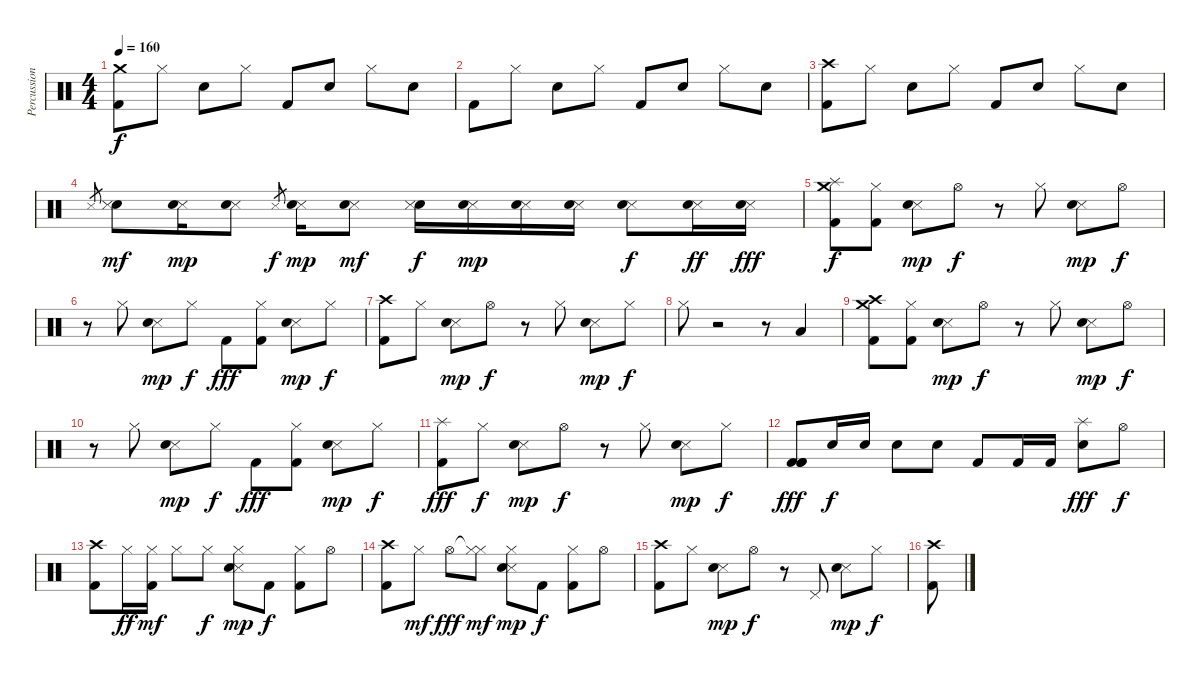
\track ("Percussion" "Percussion") {instrument percussion}
\staff {score}
\articulation defaults
\ts (4 4)
\tempo 160
\clef neutral
\ks c
("Kick (hit) 2" "Crash medium (hit)").8{dy f} "Hi-Hat (closed)".8 "Electric Snare (hit)".8 "Hi-Hat (closed)".8 "Kick (hit) 2".8 "Electric Snare (hit)".8 "Hi-Hat (closed)".8 "Electric Snare (hit)".8 |
"Kick (hit) 2".8 "Hi-Hat (closed)".8 "Electric Snare (hit)".8 "Hi-Hat (closed)".8 "Kick (hit) 2".8 "Electric Snare (hit)".8 "Hi-Hat (closed)".8 "Electric Snare (hit)".8 |
("Kick (hit) 2" "Crash high (hit)").8 "Hi-Hat (closed)".8 "Electric Snare (hit)".8 "Hi-Hat (closed)".8 "Kick (hit) 2".8 "Electric Snare (hit)".8 "Hi-Hat (closed)".8 "Electric Snare (hit)".8 |
"Snare (side stick) 3".8{gr} ("Electric Snare (hit)" "Snare (side stick) 3").8{dy mf} ("Snare (side stick) 3" "Electric Snare (hit)").16{dy mp} ("Snare (side stick) 3" "Electric Snare (hit)").8 "Snare (side stick) 3".8{gr dy f} ("Snare (side stick) 3" "Electric Snare (hit)").16{dy mp} ("Snare (side stick) 3" "Electric Snare (hit)").8{dy mf} ("Electric Snare (hit)" "Snare (side stick) 3").16{dy f} ("Snare (side stick) 3" "Electric Snare (hit)").16{dy mp} ("Snare (side stick) 3" "Electric Snare (hit)").16 ("Snare (side stick) 3" "Electric Snare (hit)").16 ("Snare (side stick) 3" "Electric Snare (hit)").8{dy f} ("Snare (side stick) 3" "Electric Snare (hit)").16{dy ff} ("Snare (side stick) 3" "Electric Snare (hit)").16{dy fff} |
("Kick (hit) 2" "Splash (hit)" "Crash medium (hit)").8{dy f} ("Hi-Hat (closed)" "Kick (hit) 2").8 ("Snare (side stick) 3" "Electric Snare (hit)").8{dy mp} "Hi-Hat (open)".8{dy f} r.8 "Hi-Hat (closed)".8 ("Snare (side stick) 3" "Electric Snare (hit)").8{dy mp} "Hi-Hat (open)".8{dy f} |
r.8 "Hi-Hat (closed)".8 ("Snare (side stick) 3" "Electric Snare (hit)").8{dy mp} "Hi-Hat (closed)".8{dy f} "Kick (hit) 2".8{dy fff} ("Hi-Hat (closed)" "Kick (hit) 2").8 ("Snare (side stick) 3" "Electric Snare (hit)").8{dy mp} "Hi-Hat (closed)".8{dy f} |
("Kick (hit) 2" "Crash high (hit)").8 "Hi-Hat (closed)".8 ("Snare (side stick) 3" "Electric Snare (hit)").8{dy mp} "Hi-Hat (open)".8{dy f} r.8 "Hi-Hat (closed)".8 ("Snare (side stick) 3" "Electric Snare (hit)").8{dy mp} "Hi-Hat (closed)".8{dy f} |
"Hi-Hat (closed)".8 r.2 r.8 "Low Floor Tom (hit)".4 |
("Kick (hit) 2" "Crash high (hit)" "Crash medium (hit)").8 ("Hi-Hat (closed)" "Kick (hit) 2").8 ("Snare (side stick) 3" "Electric Snare (hit)").8{dy mp} "Hi-Hat (open)".8{dy f} r.8 "Hi-Hat (closed)".8 ("Snare (side stick) 3" "Electric Snare (hit)").8{dy mp} "Hi-Hat (open)".8{dy f} |
r.8 "Hi-Hat (closed)".8 ("Snare (side stick) 3" "Electric Snare (hit)").8{dy mp} "Hi-Hat (closed)".8{dy f} "Kick (hit) 2".8{dy fff} ("Hi-Hat (closed)" "Kick (hit) 2").8 ("Snare (side stick) 3" "Electric Snare (hit)").8{dy mp} "Hi-Hat (closed)".8{dy f} |
("Kick (hit) 2" "Splash (hit)").8{dy fff} "Hi-Hat (closed)".8{dy f} ("Snare (side stick) 3" "Electric Snare (hit)").8{dy mp} "Hi-Hat (open)".8{dy f} r.8 "Hi-Hat (closed)".8 ("Snare (side stick) 3" "Electric Snare (hit)").8{dy mp} "Hi-Hat (closed)".8{dy f} |
("Kick (hit) 2" "Kick (hit) 2" "Kick (hit) 2").8{dy fff} "Electric Snare (hit)".16{dy f} "Electric Snare (hit)".16 "Electric Snare (hit)".8 "Electric Snare (hit)".8 "Kick (hit) 2".8 "Kick (hit) 2".16 "Kick (hit) 2".16 ("Electric Snare (hit)" "Splash (hit)").8{dy fff} "Hi-Hat (open)".8{dy f} |
("Crash high (hit)" "Kick (hit) 2").8 "Hi-Hat (closed)".16{dy ff} ("Hi-Hat (closed)" "Kick (hit) 2").16{dy mf} "Hi-Hat (closed)".8 "Hi-Hat (closed)".8{dy f} ("Hi-Hat (closed)" "Snare (side stick) 3" "Electric Snare (hit)").8{dy mp} "Kick (hit) 2".8{dy f} ("Hi-Hat (closed)" "Kick (hit) 2").8 "Hi-Hat (open)".8 |
("Crash high (hit)" "Kick (hit) 2").8 "Hi-Hat (closed)".8{dy mf} "Hi-Hat (open)".8{dy fff} ("Hi-Hat (closed)"{t} "Hi-Hat (closed)").8{dy mf} ("Hi-Hat (closed)" "Snare (side stick) 3" "Electric Snare (hit)").8{dy mp} "Kick (hit) 2".8{dy f} ("Hi-Hat (closed)" "Kick (hit) 2").8 "Hi-Hat (open)".8 |
("Crash high (hit)" "Kick (hit) 2").8 "Hi-Hat (closed)".8 ("Snare (side stick) 3" "Electric Snare (hit)").8{dy mp} "Hi-Hat (open)".8{dy f} r.8 "Pedal Hi-Hat (hit)".8 ("Snare (side stick) 3" "Electric Snare (hit)").8{dy mp} "Hi-Hat (closed)".8{dy f} |
("Crash high (hit)" "Kick (hit) 2").8
